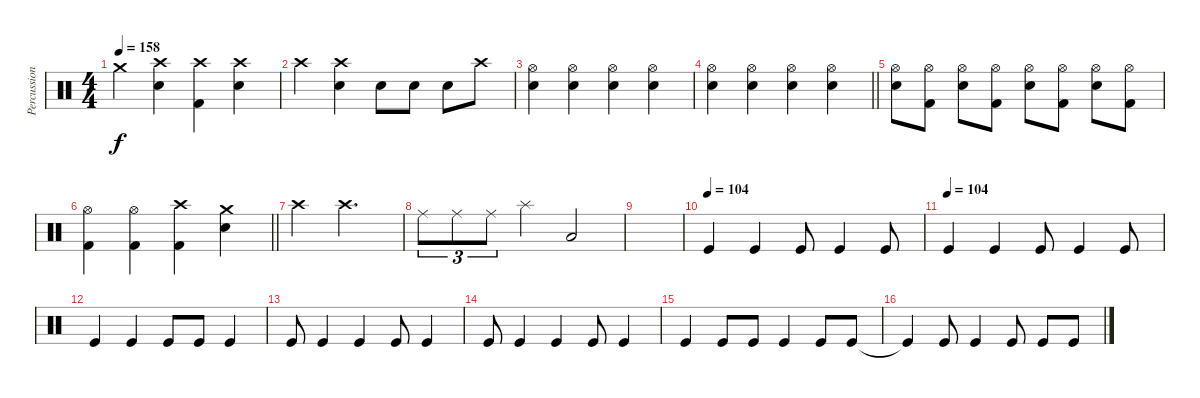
\track ("Percussion" "Percussion") {instrument percussion}
\staff {score}
\articulation defaults
\ts (4 4)
\tempo 158
\clef neutral
\ks c "Crash medium (hit)".4{dy f}
("Crash high (hit)" "Electric Snare (hit)").4 ("Crash high (hit)" "Kick (hit) 2").4 ("Crash high (hit)" "Electric Snare (hit)").4 |
"Crash high (hit)".4 ("Crash high (hit)" "Electric Snare (hit)").4 "Electric Snare (hit)".8 "Electric Snare (hit)".8 "Electric Snare (hit)".8 "Crash high (hit)".8 |
("Hi-Hat (open)" "Electric Snare (hit)").4 ("Hi-Hat (open)" "Electric Snare (hit)").4 ("Hi-Hat (open)" "Electric Snare (hit)").4 ("Hi-Hat (open)" "Electric Snare (hit)").4 |
\barLineRight lightlight
("Hi-Hat (open)" "Electric Snare (hit)").4 ("Hi-Hat (open)" "Electric Snare (hit)").4 ("Hi-Hat (open)" "Electric Snare (hit)").4 ("Hi-Hat (open)" "Electric Snare (hit)").4 |
("Hi-Hat (open)" "Electric Snare (hit)").8 ("Hi-Hat (open)" "Kick (hit) 2").8 ("Hi-Hat (open)" "Electric Snare (hit)").8 ("Hi-Hat (open)" "Kick (hit) 2").8 ("Hi-Hat (open)" "Electric Snare (hit)").8 ("Hi-Hat (open)" "Kick (hit) 2").8 ("Hi-Hat (open)" "Electric Snare (hit)").8 ("Hi-Hat (open)" "Kick (hit) 2").8 |
\barLineRight lightlight
("Hi-Hat (open)" "Kick (hit) 2").4 ("Hi-Hat (open)" "Kick (hit) 2").4 ("Crash high (hit)" "Kick (hit) 2").4 ("Crash medium (hit)" "Electric Snare (hit)").4 |
"Crash high (hit)".4 "Crash high (hit)".2{d} |
"Ride (middle)".8{tu (3 2)} "Ride (middle)".8{tu (3 2)} "Ride (middle)".8{tu (3 2)} "Splash (hit)".4 "Low Floor Tom (hit)".2 |
|
\tempo (104)
"Kick (hit)".4{volume 7} "Kick (hit)".4 "Kick (hit)".8 "Kick (hit)".4 "Kick (hit)".8 |
\tempo (104)
"Kick (hit)".4 "Kick (hit)".4 "Kick (hit)".8 "Kick (hit)".4 "Kick (hit)".8 |
"Kick (hit)".4 "Kick (hit)".4 "Kick (hit)".8 "Kick (hit)".8 "Kick (hit)".4 |
"Kick (hit)".8 "Kick (hit)".4 "Kick (hit)".4 "Kick (hit)".8 "Kick (hit)".4 |
"Kick (hit)".8 "Kick (hit)".4 "Kick (hit)".4 "Kick (hit)".8 "Kick (hit)".4 |
"Kick (hit)".4 "Kick (hit)".8 "Kick (hit)".8 "Kick (hit)".4 "Kick (hit)".8 "Kick (hit)".8 |
"Kick (hit)"{t}.4 "Kick (hit)".8 "Kick (hit)".4 "Kick (hit)".8 "Kick (hit)".8 "Kick (hit)".8
